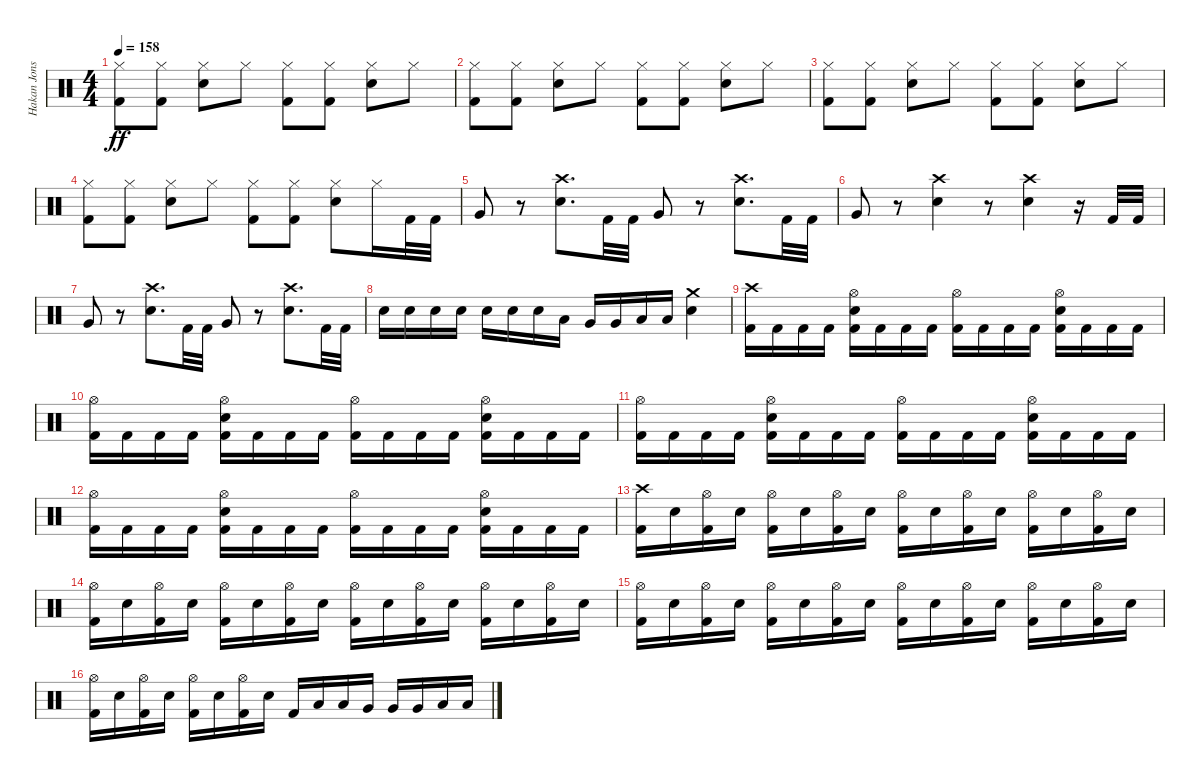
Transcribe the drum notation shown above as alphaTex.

\track ("Hakan Jonsson" "Hakan Jons") {instrument percussion}
\staff {score}
\articulation defaults
\ts (4 4)
\tempo 158
\clef neutral
\ks c
("Hi-Hat (closed)" "Kick (hit) 2").8{dy ff} ("Hi-Hat (closed)" "Kick (hit) 2").8 ("Hi-Hat (closed)" "Electric Snare (hit)").8 "Hi-Hat (closed)".8 ("Hi-Hat (closed)" "Kick (hit) 2").8 ("Hi-Hat (closed)" "Kick (hit) 2").8 ("Hi-Hat (closed)" "Electric Snare (hit)").8 "Hi-Hat (closed)".8 |
("Hi-Hat (closed)" "Kick (hit) 2").8 ("Hi-Hat (closed)" "Kick (hit) 2").8 ("Hi-Hat (closed)" "Electric Snare (hit)").8 "Hi-Hat (closed)".8 ("Hi-Hat (closed)" "Kick (hit) 2").8 ("Hi-Hat (closed)" "Kick (hit) 2").8 ("Hi-Hat (closed)" "Electric Snare (hit)").8 "Hi-Hat (closed)".8 |
("Hi-Hat (closed)" "Kick (hit) 2").8 ("Hi-Hat (closed)" "Kick (hit) 2").8 ("Hi-Hat (closed)" "Electric Snare (hit)").8 "Hi-Hat (closed)".8 ("Hi-Hat (closed)" "Kick (hit) 2").8 ("Hi-Hat (closed)" "Kick (hit) 2").8 ("Hi-Hat (closed)" "Electric Snare (hit)").8 "Hi-Hat (closed)".8 |
("Hi-Hat (closed)" "Kick (hit) 2").8 ("Hi-Hat (closed)" "Kick (hit) 2").8 ("Hi-Hat (closed)" "Electric Snare (hit)").8 "Hi-Hat (closed)".8 ("Hi-Hat (closed)" "Kick (hit) 2").8 ("Hi-Hat (closed)" "Kick (hit) 2").8 ("Hi-Hat (closed)" "Electric Snare (hit)").8 "Hi-Hat (closed)".16 "Kick (hit) 2".32 "Kick (hit) 2".32 |
"Very Low Tom (hit)".8 r.8 ("Crash high (hit)" "Electric Snare (hit)").8{d} "Kick (hit) 2".32 "Kick (hit) 2".32 "Very Low Tom (hit)".8 r.8 ("Crash high (hit)" "Electric Snare (hit)").8{d} "Kick (hit) 2".32 "Kick (hit) 2".32 |
"Very Low Tom (hit)".8 r.8 ("Crash high (hit)" "Electric Snare (hit)").4 r.8 ("Crash high (hit)" "Electric Snare (hit)").4 r.16 "Kick (hit) 2".32 "Kick (hit) 2".32 |
"Very Low Tom (hit)".8 r.8 ("Crash high (hit)" "Electric Snare (hit)").8{d} "Kick (hit) 2".32 "Kick (hit) 2".32 "Very Low Tom (hit)".8 r.8 ("Crash high (hit)" "Electric Snare (hit)").8{d} "Kick (hit) 2".32 "Kick (hit) 2".32 |
"Electric Snare (hit)".16 "Electric Snare (hit)".16 "Electric Snare (hit)".16 "Electric Snare (hit)".16 "Electric Snare (hit)".16 "Electric Snare (hit)".16 "Electric Snare (hit)".16 "Low Tom (hit)".16 "Very Low Tom (hit)".16 "Very Low Tom (hit)".16 "Low Floor Tom (hit)".16 "Low Floor Tom (hit)".16 ("Crash medium (hit)" "Electric Snare (hit)").4 |
("Crash high (hit)" "Kick (hit) 2").16 "Kick (hit) 2".16 "Kick (hit) 2".16 "Kick (hit) 2".16 ("Hi-Hat (open)" "Electric Snare (hit)" "Kick (hit) 2").16 "Kick (hit) 2".16 "Kick (hit) 2".16 "Kick (hit) 2".16 ("Hi-Hat (open)" "Kick (hit) 2").16 "Kick (hit) 2".16 "Kick (hit) 2".16 "Kick (hit) 2".16 ("Hi-Hat (open)" "Electric Snare (hit)" "Kick (hit) 2").16 "Kick (hit) 2".16 "Kick (hit) 2".16 "Kick (hit) 2".16 |
("Hi-Hat (open)" "Kick (hit) 2").16 "Kick (hit) 2".16 "Kick (hit) 2".16 "Kick (hit) 2".16 ("Hi-Hat (open)" "Electric Snare (hit)" "Kick (hit) 2").16 "Kick (hit) 2".16 "Kick (hit) 2".16 "Kick (hit) 2".16 ("Hi-Hat (open)" "Kick (hit) 2").16 "Kick (hit) 2".16 "Kick (hit) 2".16 "Kick (hit) 2".16 ("Hi-Hat (open)" "Electric Snare (hit)" "Kick (hit) 2").16 "Kick (hit) 2".16 "Kick (hit) 2".16 "Kick (hit) 2".16 |
("Hi-Hat (open)" "Kick (hit) 2").16 "Kick (hit) 2".16 "Kick (hit) 2".16 "Kick (hit) 2".16 ("Hi-Hat (open)" "Electric Snare (hit)" "Kick (hit) 2").16 "Kick (hit) 2".16 "Kick (hit) 2".16 "Kick (hit) 2".16 ("Hi-Hat (open)" "Kick (hit) 2").16 "Kick (hit) 2".16 "Kick (hit) 2".16 "Kick (hit) 2".16 ("Hi-Hat (open)" "Electric Snare (hit)" "Kick (hit) 2").16 "Kick (hit) 2".16 "Kick (hit) 2".16 "Kick (hit) 2".16 |
("Hi-Hat (open)" "Kick (hit) 2").16 "Kick (hit) 2".16 "Kick (hit) 2".16 "Kick (hit) 2".16 ("Hi-Hat (open)" "Electric Snare (hit)" "Kick (hit) 2").16 "Kick (hit) 2".16 "Kick (hit) 2".16 "Kick (hit) 2".16 ("Hi-Hat (open)" "Kick (hit) 2").16 "Kick (hit) 2".16 "Kick (hit) 2".16 "Kick (hit) 2".16 ("Hi-Hat (open)" "Electric Snare (hit)" "Kick (hit) 2").16 "Kick (hit) 2".16 "Kick (hit) 2".16 "Kick (hit) 2".16 |
("Crash high (hit)" "Kick (hit) 2").16 "Electric Snare (hit)".16 ("Hi-Hat (open)" "Kick (hit) 2").16 "Electric Snare (hit)".16 ("Hi-Hat (open)" "Kick (hit) 2").16 "Electric Snare (hit)".16 ("Hi-Hat (open)" "Kick (hit) 2").16 "Electric Snare (hit)".16 ("Hi-Hat (open)" "Kick (hit) 2").16 "Electric Snare (hit)".16 ("Hi-Hat (open)" "Kick (hit) 2").16 "Electric Snare (hit)".16 ("Hi-Hat (open)" "Kick (hit) 2").16 "Electric Snare (hit)".16 ("Hi-Hat (open)" "Kick (hit) 2").16 "Electric Snare (hit)".16 |
("Hi-Hat (open)" "Kick (hit) 2").16 "Electric Snare (hit)".16 ("Hi-Hat (open)" "Kick (hit) 2").16 "Electric Snare (hit)".16 ("Hi-Hat (open)" "Kick (hit) 2").16 "Electric Snare (hit)".16 ("Hi-Hat (open)" "Kick (hit) 2").16 "Electric Snare (hit)".16 ("Hi-Hat (open)" "Kick (hit) 2").16 "Electric Snare (hit)".16 ("Hi-Hat (open)" "Kick (hit) 2").16 "Electric Snare (hit)".16 ("Hi-Hat (open)" "Kick (hit) 2").16 "Electric Snare (hit)".16 ("Hi-Hat (open)" "Kick (hit) 2").16 "Electric Snare (hit)".16 |
("Hi-Hat (open)" "Kick (hit) 2").16 "Electric Snare (hit)".16 ("Hi-Hat (open)" "Kick (hit) 2").16 "Electric Snare (hit)".16 ("Hi-Hat (open)" "Kick (hit) 2").16 "Electric Snare (hit)".16 ("Hi-Hat (open)" "Kick (hit) 2").16 "Electric Snare (hit)".16 ("Hi-Hat (open)" "Kick (hit) 2").16 "Electric Snare (hit)".16 ("Hi-Hat (open)" "Kick (hit) 2").16 "Electric Snare (hit)".16 ("Hi-Hat (open)" "Kick (hit) 2").16 "Electric Snare (hit)".16 ("Hi-Hat (open)" "Kick (hit) 2").16 "Electric Snare (hit)".16 |
("Hi-Hat (open)" "Kick (hit) 2").16 "Electric Snare (hit)".16 ("Hi-Hat (open)" "Kick (hit) 2").16 "Electric Snare (hit)".16 ("Hi-Hat (open)" "Kick (hit) 2").16 "Electric Snare (hit)".16 ("Hi-Hat (open)" "Kick (hit) 2").16 "Electric Snare (hit)".16 "Kick (hit) 2".16 "Low Tom (hit)".16 "Low Tom (hit)".16 "Very Low Tom (hit)".16 "Very Low Tom (hit)".16 "Very Low Tom (hit)".16 "Low Floor Tom (hit)".16 "Low Floor Tom (hit)".16
